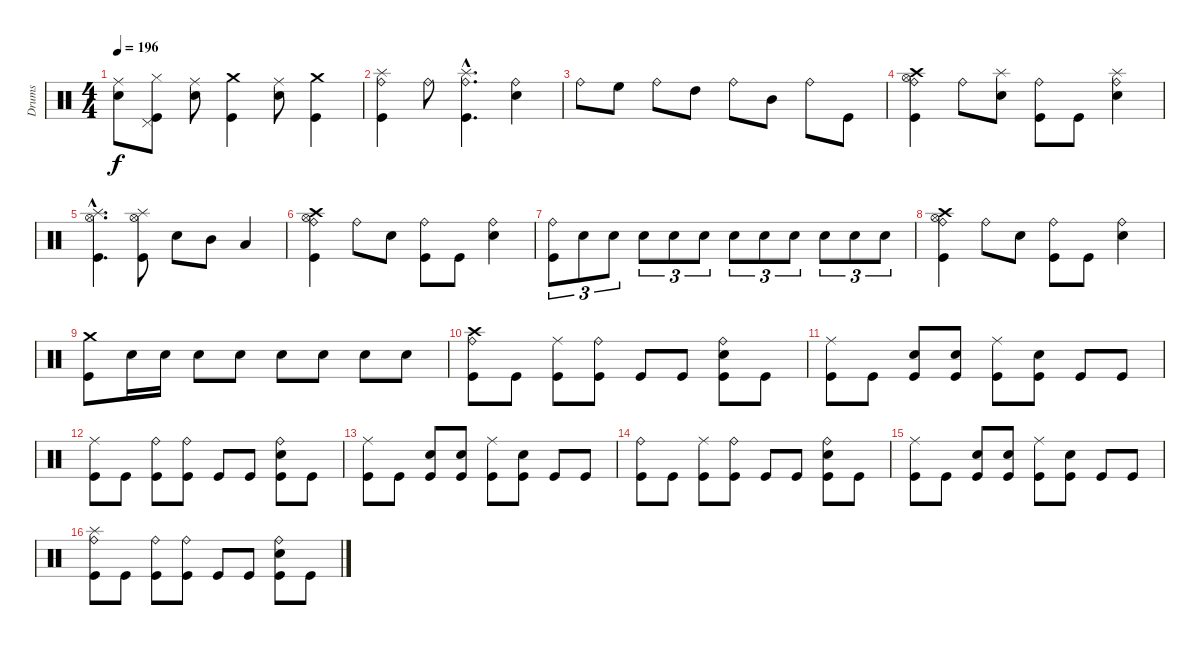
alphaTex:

\track ("Drums" "Drums") {instrument percussion}
\staff {score}
\articulation defaults
\ts (4 4)
\tempo 196
\clef neutral
\ks c
("Ride (middle)" "Electric Snare (hit)").8{dy f} ("Hi-Hat (closed)" "Pedal Hi-Hat (hit)" "Kick (hit)").8 ("Ride (middle)" "Electric Snare (hit)").8 ("Crash medium (hit)" "Kick (hit)").4 ("Ride (middle)" "Electric Snare (hit)").8 ("Crash medium (hit)" "Kick (hit)").4 |
("Ride (bell)" "Splash (hit)" "Kick (hit)").4 "Ride (bell)".8 ("Ride (bell)"{hac} "Splash (hit)"{hac} "Kick (hit)"{hac}).4{d} ("Ride (bell)" "Electric Snare (hit)").4 |
"Ride (bell)".8 "High Floor Tom (hit)".8 "Ride (bell)".8 "High Tom (hit)".8 "Ride (bell)".8 "Mid Tom (hit)".8 "Ride (bell)".8 "Kick (hit)".8 |
("Crash high (hit)" "Ride (bell)" "Hi-Hat (open)" "Kick (hit)").4 "Ride (bell)".8 ("Splash (hit)" "Electric Snare (hit)").8 ("Ride (bell)" "Kick (hit)").8 "Kick (hit)".8 ("Splash (hit)" "Ride (bell)" "Electric Snare (hit)").4 |
("Splash (hit)"{hac} "Hi-Hat (open)"{hac} "Kick (hit)"{hac}).4{d} ("Splash (hit)" "Hi-Hat (open)" "Kick (hit)").8 "Electric Snare (hit)".8 "Mid Tom (hit)".8 "Low Tom (hit)".4 |
("Crash high (hit)" "Ride (bell)" "Hi-Hat (open)" "Kick (hit)").4 "Ride (bell)".8 "Electric Snare (hit)".8 ("Ride (bell)" "Kick (hit)").8 "Kick (hit)".8 ("Ride (bell)" "Electric Snare (hit)").4 |
("Ride (bell)" "Kick (hit)").8{tu (3 2)} "Electric Snare (hit)".8{tu (3 2)} "Electric Snare (hit)".8{tu (3 2)} "Electric Snare (hit)".8{tu (3 2)} "Electric Snare (hit)".8{tu (3 2)} "Electric Snare (hit)".8{tu (3 2)} "Electric Snare (hit)".8{tu (3 2)} "Electric Snare (hit)".8{tu (3 2)} "Electric Snare (hit)".8{tu (3 2)} "Electric Snare (hit)".8{tu (3 2)} "Electric Snare (hit)".8{tu (3 2)} "Electric Snare (hit)".8{tu (3 2)} |
("Crash high (hit)" "Ride (bell)" "Hi-Hat (open)" "Kick (hit)").4 "Ride (bell)".8 "Electric Snare (hit)".8 ("Ride (bell)" "Kick (hit)").8 "Kick (hit)".8 ("Ride (bell)" "Electric Snare (hit)").4 |
("Crash medium (hit)" "Kick (hit)").8 "Electric Snare (hit)".16 "Electric Snare (hit)".16 "Electric Snare (hit)".8 "Electric Snare (hit)".8 "Electric Snare (hit)".8 "Electric Snare (hit)".8 "Electric Snare (hit)".8 "Electric Snare (hit)".8 |
("Crash high (hit)" "Ride (bell)" "Kick (hit)").8 "Kick (hit)".8 ("Ride (middle)" "Kick (hit)").8 ("Ride (bell)" "Kick (hit)").8 "Kick (hit)".8 "Kick (hit)".8 ("Ride (bell)" "Electric Snare (hit)" "Kick (hit)").8 "Kick (hit)".8 |
("Ride (middle)" "Kick (hit)").8 "Kick (hit)".8 ("Electric Snare (hit)" "Kick (hit)").8 ("Electric Snare (hit)" "Kick (hit)").8 ("Ride (middle)" "Kick (hit)").8 ("Electric Snare (hit)" "Kick (hit)").8 "Kick (hit)".8 "Kick (hit)".8 |
("Ride (middle)" "Kick (hit)").8 "Kick (hit)".8 ("Ride (bell)" "Kick (hit)").8 ("Ride (bell)" "Kick (hit)").8 "Kick (hit)".8 "Kick (hit)".8 ("Ride (bell)" "Electric Snare (hit)" "Kick (hit)").8 "Kick (hit)".8 |
("Ride (middle)" "Kick (hit)").8 "Kick (hit)".8 ("Electric Snare (hit)" "Kick (hit)").8 ("Electric Snare (hit)" "Kick (hit)").8 ("Ride (middle)" "Kick (hit)").8 ("Electric Snare (hit)" "Kick (hit)").8 "Kick (hit)".8 "Kick (hit)".8 |
("Ride (bell)" "Kick (hit)").8 "Kick (hit)".8 ("Ride (middle)" "Kick (hit)").8 ("Ride (bell)" "Kick (hit)").8 "Kick (hit)".8 "Kick (hit)".8 ("Ride (bell)" "Electric Snare (hit)" "Kick (hit)").8 "Kick (hit)".8 |
("Ride (middle)" "Kick (hit)").8 "Kick (hit)".8 ("Electric Snare (hit)" "Kick (hit)").8 ("Electric Snare (hit)" "Kick (hit)").8 ("Ride (middle)" "Kick (hit)").8 ("Electric Snare (hit)" "Kick (hit)").8 "Kick (hit)".8 "Kick (hit)".8 |
("Splash (hit)" "Ride (bell)" "Kick (hit)").8 "Kick (hit)".8 ("Ride (bell)" "Kick (hit)").8 ("Ride (bell)" "Kick (hit)").8 "Kick (hit)".8 "Kick (hit)".8 ("Ride (bell)" "Electric Snare (hit)" "Kick (hit)").8 "Kick (hit)".8
